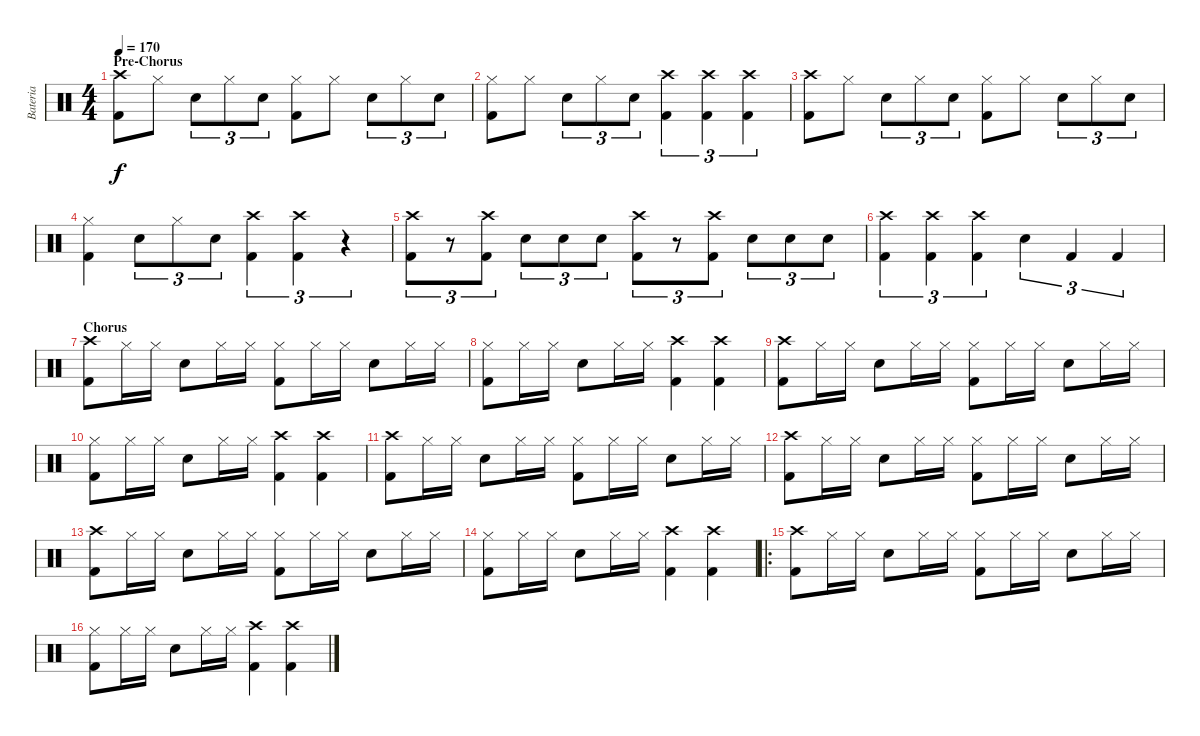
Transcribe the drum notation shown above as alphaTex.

\track ("Bateria" "Bateria") {instrument percussion}
\staff {score}
\articulation defaults
\ts (4 4)
\section ("" "Pre-Chorus")
\tempo 170
\clef neutral
\ks c
("Crash high (hit)" "Kick (hit) 2").8{dy f} "Hi-Hat (closed)".8 "Snare (hit) 2".8{tu (3 2)} "Hi-Hat (closed)".8{tu (3 2)} "Snare (hit) 2".8{tu (3 2)} ("Hi-Hat (closed)" "Kick (hit) 2").8 "Hi-Hat (closed)".8 "Snare (hit) 2".8{tu (3 2)} "Hi-Hat (closed)".8{tu (3 2)} "Snare (hit) 2".8{tu (3 2)} |
("Hi-Hat (closed)" "Kick (hit) 2").8 "Hi-Hat (closed)".8 "Snare (hit) 2".8{tu (3 2)} "Hi-Hat (closed)".8{tu (3 2)} "Snare (hit) 2".8{tu (3 2)} ("Crash high (hit)" "Kick (hit) 2").4{tu (3 2)} ("Crash high (hit)" "Kick (hit) 2").4{tu (3 2)} ("Crash high (hit)" "Kick (hit) 2").4{tu (3 2)} |
("Crash high (hit)" "Kick (hit) 2").8 "Hi-Hat (closed)".8 "Snare (hit) 2".8{tu (3 2)} "Hi-Hat (closed)".8{tu (3 2)} "Snare (hit) 2".8{tu (3 2)} ("Hi-Hat (closed)" "Kick (hit) 2").8 "Hi-Hat (closed)".8 "Snare (hit) 2".8{tu (3 2)} "Hi-Hat (closed)".8{tu (3 2)} "Snare (hit) 2".8{tu (3 2)} |
("Hi-Hat (closed)" "Kick (hit) 2").4 "Snare (hit) 2".8{tu (3 2)} "Hi-Hat (closed)".8{tu (3 2)} "Snare (hit) 2".8{tu (3 2)} ("Crash high (hit)" "Kick (hit) 2").4{tu (3 2)} ("Crash high (hit)" "Kick (hit) 2").4{tu (3 2)} r.4{tu (3 2)} |
("Crash high (hit)" "Kick (hit) 2").8{tu (3 2)} r.8{tu (3 2)} ("Crash high (hit)" "Kick (hit) 2").8{tu (3 2)} "Snare (hit) 2".8{tu (3 2)} "Snare (hit) 2".8{tu (3 2)} "Snare (hit) 2".8{tu (3 2)} ("Crash high (hit)" "Kick (hit) 2").8{tu (3 2)} r.8{tu (3 2)} ("Crash high (hit)" "Kick (hit) 2").8{tu (3 2)} "Snare (hit) 2".8{tu (3 2)} "Snare (hit) 2".8{tu (3 2)} "Snare (hit) 2".8{tu (3 2)} |
("Crash high (hit)" "Kick (hit) 2").4{tu (3 2)} ("Crash high (hit)" "Kick (hit) 2").4{tu (3 2)} ("Crash high (hit)" "Kick (hit) 2").4{tu (3 2)} "Snare (hit) 2".4{tu (3 2)} "Kick (hit) 2".4{tu (3 2)} "Kick (hit) 2".4{tu (3 2)} |
\section ("" "Chorus")
("Crash high (hit)" "Kick (hit) 2").8 "Hi-Hat (closed)".16 "Hi-Hat (closed)".16 "Snare (hit) 2".8 "Hi-Hat (closed)".16 "Hi-Hat (closed)".16 ("Hi-Hat (closed)" "Kick (hit) 2").8 "Hi-Hat (closed)".16 "Hi-Hat (closed)".16 "Snare (hit) 2".8 "Hi-Hat (closed)".16 "Hi-Hat (closed)".16 |
("Hi-Hat (closed)" "Kick (hit) 2").8 "Hi-Hat (closed)".16 "Hi-Hat (closed)".16 "Snare (hit) 2".8 "Hi-Hat (closed)".16 "Hi-Hat (closed)".16 ("Crash high (hit)" "Kick (hit) 2").4 ("Crash high (hit)" "Kick (hit) 2").4 |
("Crash high (hit)" "Kick (hit) 2").8 "Hi-Hat (closed)".16 "Hi-Hat (closed)".16 "Snare (hit) 2".8 "Hi-Hat (closed)".16 "Hi-Hat (closed)".16 ("Hi-Hat (closed)" "Kick (hit) 2").8 "Hi-Hat (closed)".16 "Hi-Hat (closed)".16 "Snare (hit) 2".8 "Hi-Hat (closed)".16 "Hi-Hat (closed)".16 |
("Hi-Hat (closed)" "Kick (hit) 2").8 "Hi-Hat (closed)".16 "Hi-Hat (closed)".16 "Snare (hit) 2".8 "Hi-Hat (closed)".16 "Hi-Hat (closed)".16 ("Crash high (hit)" "Kick (hit) 2").4 ("Crash high (hit)" "Kick (hit) 2").4 |
("Crash high (hit)" "Kick (hit) 2").8 "Hi-Hat (closed)".16 "Hi-Hat (closed)".16 "Snare (hit) 2".8 "Hi-Hat (closed)".16 "Hi-Hat (closed)".16 ("Hi-Hat (closed)" "Kick (hit) 2").8 "Hi-Hat (closed)".16 "Hi-Hat (closed)".16 "Snare (hit) 2".8 "Hi-Hat (closed)".16 "Hi-Hat (closed)".16 |
("Crash high (hit)" "Kick (hit) 2").8 "Hi-Hat (closed)".16 "Hi-Hat (closed)".16 "Snare (hit) 2".8 "Hi-Hat (closed)".16 "Hi-Hat (closed)".16 ("Hi-Hat (closed)" "Kick (hit) 2").8 "Hi-Hat (closed)".16 "Hi-Hat (closed)".16 "Snare (hit) 2".8 "Hi-Hat (closed)".16 "Hi-Hat (closed)".16 |
("Crash high (hit)" "Kick (hit) 2").8 "Hi-Hat (closed)".16 "Hi-Hat (closed)".16 "Snare (hit) 2".8 "Hi-Hat (closed)".16 "Hi-Hat (closed)".16 ("Hi-Hat (closed)" "Kick (hit) 2").8 "Hi-Hat (closed)".16 "Hi-Hat (closed)".16 "Snare (hit) 2".8 "Hi-Hat (closed)".16 "Hi-Hat (closed)".16 |
("Hi-Hat (closed)" "Kick (hit) 2").8 "Hi-Hat (closed)".16 "Hi-Hat (closed)".16 "Snare (hit) 2".8 "Hi-Hat (closed)".16 "Hi-Hat (closed)".16 ("Crash high (hit)" "Kick (hit) 2").4 ("Crash high (hit)" "Kick (hit) 2").4 |
\ro
("Crash high (hit)" "Kick (hit) 2").8 "Hi-Hat (closed)".16 "Hi-Hat (closed)".16 "Snare (hit) 2".8 "Hi-Hat (closed)".16 "Hi-Hat (closed)".16 ("Hi-Hat (closed)" "Kick (hit) 2").8 "Hi-Hat (closed)".16 "Hi-Hat (closed)".16 "Snare (hit) 2".8 "Hi-Hat (closed)".16 "Hi-Hat (closed)".16 |
("Hi-Hat (closed)" "Kick (hit) 2").8 "Hi-Hat (closed)".16 "Hi-Hat (closed)".16 "Snare (hit) 2".8 "Hi-Hat (closed)".16 "Hi-Hat (closed)".16 ("Crash high (hit)" "Kick (hit) 2").4 ("Crash high (hit)" "Kick (hit) 2").4
